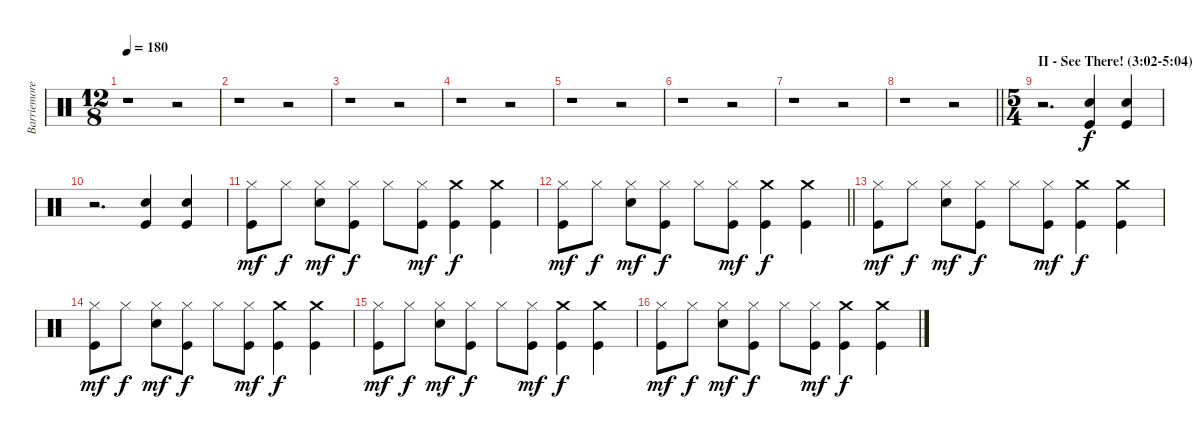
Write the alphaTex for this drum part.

\track ("Barriemore Barlow (drums)" "Barriemore") {instrument percussion}
\staff {score}
\articulation defaults
\ts (12 8)
\tempo 180
\clef neutral
\ks c
r.1{dy mf} r.2 |
r.1 r.2 |
r.1 r.2 |
r.1 r.2 |
r.1 r.2 |
r.1 r.2 |
r.1 r.2 |
\barLineRight lightlight
r.1 r.2 |
\ts (5 4)
\section ("" "II - See There! (3:02-5:04)")
r.2{d} ("Electric Snare (hit)" "Kick (hit)").4{dy f} ("Electric Snare (hit)" "Kick (hit)").4 |
r.2{d} ("Electric Snare (hit)" "Kick (hit)").4 ("Electric Snare (hit)" "Kick (hit)").4 |
("Hi-Hat (closed)" "Kick (hit)").8{dy mf} "Hi-Hat (closed)".8{dy f} ("Hi-Hat (closed)" "Electric Snare (hit)").8{dy mf} ("Hi-Hat (closed)" "Kick (hit)").8{dy f} "Hi-Hat (closed)".8 ("Hi-Hat (closed)" "Kick (hit)").8{dy mf} ("Crash medium (hit)" "Kick (hit)").4{dy f} ("Crash medium (hit)" "Kick (hit)").4 |
\barLineRight lightlight
("Hi-Hat (closed)" "Kick (hit)").8{dy mf} "Hi-Hat (closed)".8{dy f} ("Hi-Hat (closed)" "Electric Snare (hit)").8{dy mf} ("Hi-Hat (closed)" "Kick (hit)").8{dy f} "Hi-Hat (closed)".8 ("Hi-Hat (closed)" "Kick (hit)").8{dy mf} ("Crash medium (hit)" "Kick (hit)").4{dy f} ("Crash medium (hit)" "Kick (hit)").4 |
("Hi-Hat (closed)" "Kick (hit)").8{dy mf} "Hi-Hat (closed)".8{dy f} ("Hi-Hat (closed)" "Electric Snare (hit)").8{dy mf} ("Hi-Hat (closed)" "Kick (hit)").8{dy f} "Hi-Hat (closed)".8 ("Hi-Hat (closed)" "Kick (hit)").8{dy mf} ("Crash medium (hit)" "Kick (hit)").4{dy f} ("Crash medium (hit)" "Kick (hit)").4 |
("Hi-Hat (closed)" "Kick (hit)").8{dy mf} "Hi-Hat (closed)".8{dy f} ("Hi-Hat (closed)" "Electric Snare (hit)").8{dy mf} ("Hi-Hat (closed)" "Kick (hit)").8{dy f} "Hi-Hat (closed)".8 ("Hi-Hat (closed)" "Kick (hit)").8{dy mf} ("Crash medium (hit)" "Kick (hit)").4{dy f} ("Crash medium (hit)" "Kick (hit)").4 |
("Hi-Hat (closed)" "Kick (hit)").8{dy mf} "Hi-Hat (closed)".8{dy f} ("Hi-Hat (closed)" "Electric Snare (hit)").8{dy mf} ("Hi-Hat (closed)" "Kick (hit)").8{dy f} "Hi-Hat (closed)".8 ("Hi-Hat (closed)" "Kick (hit)").8{dy mf} ("Crash medium (hit)" "Kick (hit)").4{dy f} ("Crash medium (hit)" "Kick (hit)").4 |
("Hi-Hat (closed)" "Kick (hit)").8{dy mf} "Hi-Hat (closed)".8{dy f} ("Hi-Hat (closed)" "Electric Snare (hit)").8{dy mf} ("Hi-Hat (closed)" "Kick (hit)").8{dy f} "Hi-Hat (closed)".8 ("Hi-Hat (closed)" "Kick (hit)").8{dy mf} ("Crash medium (hit)" "Kick (hit)").4{dy f} ("Crash medium (hit)" "Kick (hit)").4
